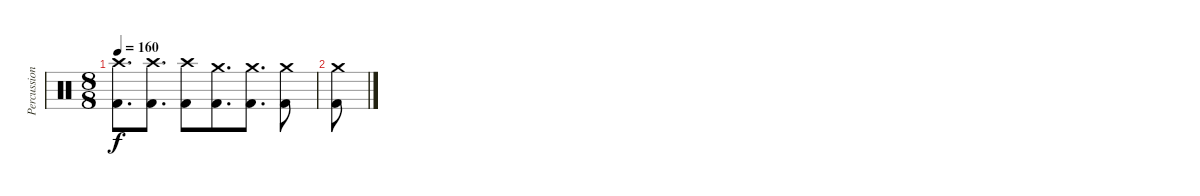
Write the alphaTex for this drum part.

\track ("Percussion" "Percussion") {instrument percussion}
\staff {score}
\articulation defaults
\ts (8 8)
\tempo 160
\clef neutral
\ks c
("Crash high (hit)" "Kick (hit) 2").8{d dy f} ("Crash high (hit)" "Kick (hit) 2").8{d} ("Crash high (hit)" "Kick (hit) 2").8 ("Crash medium (hit)" "Kick (hit) 2").8{d} ("Crash medium (hit)" "Kick (hit) 2").8{d} ("Crash medium (hit)" "Kick (hit) 2").8 |
("Crash medium (hit)" "Kick (hit) 2").8
